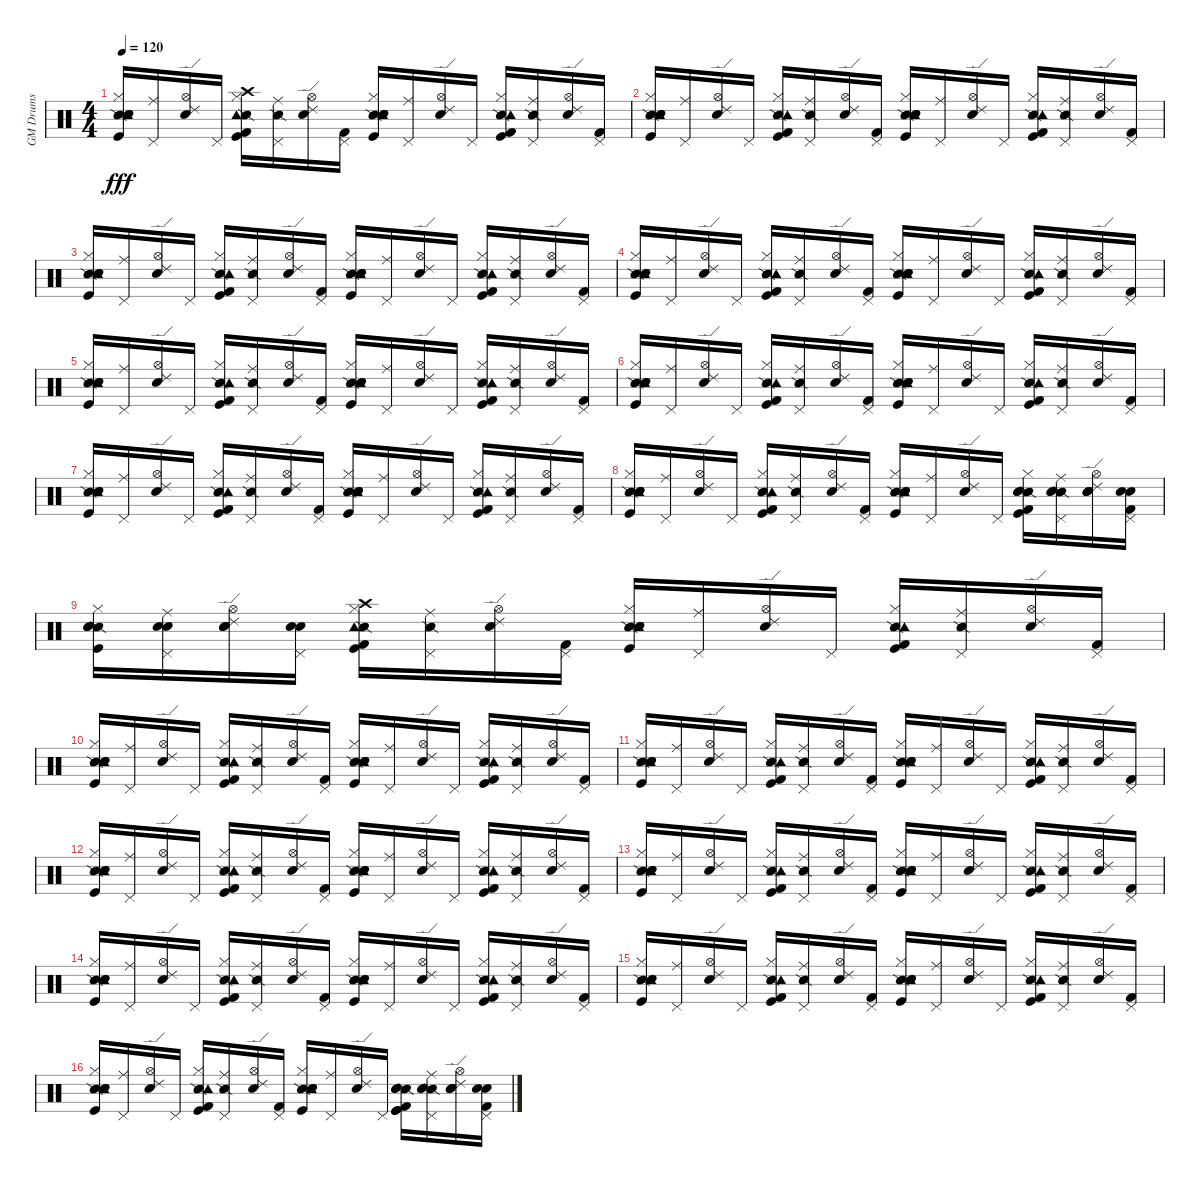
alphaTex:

\track ("GM Drums" "GM Drums") {instrument percussion}
\staff {score}
\articulation defaults
\ts (4 4)
\tempo 120
\clef neutral
\ks c
("Snare (side stick) 2" "Kick (hit)" "Snare (hit) 2" "Hand Clap (hit)" "Hi-Hat (closed)" "Tambourine (hit)").16{dy fff} ("Pedal Hi-Hat (hit)" "Ride (middle)").16 ("Metronome (bell)" "Hi-Hat (open)" "Ride (edge) 2").16 "Pedal Hi-Hat (hit)".16 ("Snare (side stick) 2" "Kick (hit)" "Kick (hit) 2" "Hi-Hat (closed)" "Crash high (hit)" "Tambourine (hit)").16 ("Snare (side stick) 2" "Pedal Hi-Hat (hit)" "Ride (middle)").16 ("Metronome (bell)" "Hi-Hat (open)" "Ride (edge) 2").16 ("Kick (hit) 2" "Pedal Hi-Hat (hit)").16 ("Snare (side stick) 2" "Kick (hit)" "Snare (hit) 2" "Hand Clap (hit)" "Hi-Hat (closed)" "Tambourine (hit)").16 ("Pedal Hi-Hat (hit)" "Ride (middle)").16 ("Metronome (bell)" "Hi-Hat (open)" "Ride (edge) 2").16 "Pedal Hi-Hat (hit)".16 ("Snare (side stick) 2" "Kick (hit)" "Kick (hit) 2" "Hi-Hat (closed)" "Tambourine (hit)").16 ("Snare (side stick) 2" "Pedal Hi-Hat (hit)" "Ride (middle)").16 ("Metronome (bell)" "Hi-Hat (open)" "Ride (edge) 2").16 ("Kick (hit) 2" "Pedal Hi-Hat (hit)").16 |
("Snare (side stick) 2" "Kick (hit)" "Snare (hit) 2" "Hand Clap (hit)" "Hi-Hat (closed)" "Tambourine (hit)").16 ("Pedal Hi-Hat (hit)" "Ride (middle)").16 ("Metronome (bell)" "Hi-Hat (open)" "Ride (edge) 2").16 "Pedal Hi-Hat (hit)".16 ("Snare (side stick) 2" "Kick (hit)" "Kick (hit) 2" "Hi-Hat (closed)" "Tambourine (hit)").16 ("Snare (side stick) 2" "Pedal Hi-Hat (hit)" "Ride (middle)").16 ("Metronome (bell)" "Hi-Hat (open)" "Ride (edge) 2").16 ("Kick (hit) 2" "Pedal Hi-Hat (hit)").16 ("Snare (side stick) 2" "Kick (hit)" "Snare (hit) 2" "Hand Clap (hit)" "Hi-Hat (closed)" "Tambourine (hit)").16 ("Pedal Hi-Hat (hit)" "Ride (middle)").16 ("Metronome (bell)" "Hi-Hat (open)" "Ride (edge) 2").16 "Pedal Hi-Hat (hit)".16 ("Snare (side stick) 2" "Kick (hit)" "Kick (hit) 2" "Hi-Hat (closed)" "Tambourine (hit)").16 ("Snare (side stick) 2" "Pedal Hi-Hat (hit)" "Ride (middle)").16 ("Metronome (bell)" "Hi-Hat (open)" "Ride (edge) 2").16 ("Kick (hit) 2" "Pedal Hi-Hat (hit)").16 |
("Snare (side stick) 2" "Kick (hit)" "Snare (hit) 2" "Hand Clap (hit)" "Hi-Hat (closed)" "Tambourine (hit)").16 ("Pedal Hi-Hat (hit)" "Ride (middle)").16 ("Metronome (bell)" "Hi-Hat (open)" "Ride (edge) 2").16 "Pedal Hi-Hat (hit)".16 ("Snare (side stick) 2" "Kick (hit)" "Kick (hit) 2" "Hi-Hat (closed)" "Tambourine (hit)").16 ("Snare (side stick) 2" "Pedal Hi-Hat (hit)" "Ride (middle)").16 ("Metronome (bell)" "Hi-Hat (open)" "Ride (edge) 2").16 ("Kick (hit) 2" "Pedal Hi-Hat (hit)").16 ("Snare (side stick) 2" "Kick (hit)" "Snare (hit) 2" "Hand Clap (hit)" "Hi-Hat (closed)" "Tambourine (hit)").16 ("Pedal Hi-Hat (hit)" "Ride (middle)").16 ("Metronome (bell)" "Hi-Hat (open)" "Ride (edge) 2").16 "Pedal Hi-Hat (hit)".16 ("Snare (side stick) 2" "Kick (hit)" "Kick (hit) 2" "Hi-Hat (closed)" "Tambourine (hit)").16 ("Snare (side stick) 2" "Pedal Hi-Hat (hit)" "Ride (middle)").16 ("Metronome (bell)" "Hi-Hat (open)" "Ride (edge) 2").16 ("Kick (hit) 2" "Pedal Hi-Hat (hit)").16 |
("Snare (side stick) 2" "Kick (hit)" "Snare (hit) 2" "Hand Clap (hit)" "Hi-Hat (closed)" "Tambourine (hit)").16 ("Pedal Hi-Hat (hit)" "Ride (middle)").16 ("Metronome (bell)" "Hi-Hat (open)" "Ride (edge) 2").16 "Pedal Hi-Hat (hit)".16 ("Snare (side stick) 2" "Kick (hit)" "Kick (hit) 2" "Hi-Hat (closed)" "Tambourine (hit)").16 ("Snare (side stick) 2" "Pedal Hi-Hat (hit)" "Ride (middle)").16 ("Metronome (bell)" "Hi-Hat (open)" "Ride (edge) 2").16 ("Kick (hit) 2" "Pedal Hi-Hat (hit)").16 ("Snare (side stick) 2" "Kick (hit)" "Snare (hit) 2" "Hand Clap (hit)" "Hi-Hat (closed)" "Tambourine (hit)").16 ("Pedal Hi-Hat (hit)" "Ride (middle)").16 ("Metronome (bell)" "Hi-Hat (open)" "Ride (edge) 2").16 "Pedal Hi-Hat (hit)".16 ("Snare (side stick) 2" "Kick (hit)" "Kick (hit) 2" "Hi-Hat (closed)" "Tambourine (hit)").16 ("Snare (side stick) 2" "Pedal Hi-Hat (hit)" "Ride (middle)").16 ("Metronome (bell)" "Hi-Hat (open)" "Ride (edge) 2").16 ("Kick (hit) 2" "Pedal Hi-Hat (hit)").16 |
("Snare (side stick) 2" "Kick (hit)" "Snare (hit) 2" "Hand Clap (hit)" "Hi-Hat (closed)" "Tambourine (hit)").16 ("Pedal Hi-Hat (hit)" "Ride (middle)").16 ("Metronome (bell)" "Hi-Hat (open)" "Ride (edge) 2").16 "Pedal Hi-Hat (hit)".16 ("Snare (side stick) 2" "Kick (hit)" "Kick (hit) 2" "Hi-Hat (closed)" "Tambourine (hit)").16 ("Snare (side stick) 2" "Pedal Hi-Hat (hit)" "Ride (middle)").16 ("Metronome (bell)" "Hi-Hat (open)" "Ride (edge) 2").16 ("Kick (hit) 2" "Pedal Hi-Hat (hit)").16 ("Snare (side stick) 2" "Kick (hit)" "Snare (hit) 2" "Hand Clap (hit)" "Hi-Hat (closed)" "Tambourine (hit)").16 ("Pedal Hi-Hat (hit)" "Ride (middle)").16 ("Metronome (bell)" "Hi-Hat (open)" "Ride (edge) 2").16 "Pedal Hi-Hat (hit)".16 ("Snare (side stick) 2" "Kick (hit)" "Kick (hit) 2" "Hi-Hat (closed)" "Tambourine (hit)").16 ("Snare (side stick) 2" "Pedal Hi-Hat (hit)" "Ride (middle)").16 ("Metronome (bell)" "Hi-Hat (open)" "Ride (edge) 2").16 ("Kick (hit) 2" "Pedal Hi-Hat (hit)").16 |
("Snare (side stick) 2" "Kick (hit)" "Snare (hit) 2" "Hand Clap (hit)" "Hi-Hat (closed)" "Tambourine (hit)").16 ("Pedal Hi-Hat (hit)" "Ride (middle)").16 ("Metronome (bell)" "Hi-Hat (open)" "Ride (edge) 2").16 "Pedal Hi-Hat (hit)".16 ("Snare (side stick) 2" "Kick (hit)" "Kick (hit) 2" "Hi-Hat (closed)" "Tambourine (hit)").16 ("Snare (side stick) 2" "Pedal Hi-Hat (hit)" "Ride (middle)").16 ("Metronome (bell)" "Hi-Hat (open)" "Ride (edge) 2").16 ("Kick (hit) 2" "Pedal Hi-Hat (hit)").16 ("Snare (side stick) 2" "Kick (hit)" "Snare (hit) 2" "Hand Clap (hit)" "Hi-Hat (closed)" "Tambourine (hit)").16 ("Pedal Hi-Hat (hit)" "Ride (middle)").16 ("Metronome (bell)" "Hi-Hat (open)" "Ride (edge) 2").16 "Pedal Hi-Hat (hit)".16 ("Snare (side stick) 2" "Kick (hit)" "Kick (hit) 2" "Hi-Hat (closed)" "Tambourine (hit)").16 ("Snare (side stick) 2" "Pedal Hi-Hat (hit)" "Ride (middle)").16 ("Metronome (bell)" "Hi-Hat (open)" "Ride (edge) 2").16 ("Kick (hit) 2" "Pedal Hi-Hat (hit)").16 |
("Snare (side stick) 2" "Kick (hit)" "Snare (hit) 2" "Hand Clap (hit)" "Hi-Hat (closed)" "Tambourine (hit)").16 ("Pedal Hi-Hat (hit)" "Ride (middle)").16 ("Metronome (bell)" "Hi-Hat (open)" "Ride (edge) 2").16 "Pedal Hi-Hat (hit)".16 ("Snare (side stick) 2" "Kick (hit)" "Kick (hit) 2" "Hi-Hat (closed)" "Tambourine (hit)").16 ("Snare (side stick) 2" "Pedal Hi-Hat (hit)" "Ride (middle)").16 ("Metronome (bell)" "Hi-Hat (open)" "Ride (edge) 2").16 ("Kick (hit) 2" "Pedal Hi-Hat (hit)").16 ("Snare (side stick) 2" "Kick (hit)" "Snare (hit) 2" "Hand Clap (hit)" "Hi-Hat (closed)" "Tambourine (hit)").16 ("Pedal Hi-Hat (hit)" "Ride (middle)").16 ("Metronome (bell)" "Hi-Hat (open)" "Ride (edge) 2").16 "Pedal Hi-Hat (hit)".16 ("Snare (side stick) 2" "Kick (hit)" "Kick (hit) 2" "Hi-Hat (closed)" "Tambourine (hit)").16 ("Snare (side stick) 2" "Pedal Hi-Hat (hit)" "Ride (middle)").16 ("Metronome (bell)" "Hi-Hat (open)" "Ride (edge) 2").16 ("Kick (hit) 2" "Pedal Hi-Hat (hit)").16 |
("Snare (side stick) 2" "Kick (hit)" "Snare (hit) 2" "Hand Clap (hit)" "Hi-Hat (closed)" "Tambourine (hit)").16 ("Pedal Hi-Hat (hit)" "Ride (middle)").16 ("Metronome (bell)" "Hi-Hat (open)" "Ride (edge) 2").16 "Pedal Hi-Hat (hit)".16 ("Snare (side stick) 2" "Kick (hit)" "Kick (hit) 2" "Hi-Hat (closed)" "Tambourine (hit)").16 ("Snare (side stick) 2" "Pedal Hi-Hat (hit)" "Ride (middle)").16 ("Metronome (bell)" "Hi-Hat (open)" "Ride (edge) 2").16 ("Kick (hit) 2" "Pedal Hi-Hat (hit)").16 ("Snare (side stick) 2" "Kick (hit)" "Snare (hit) 2" "Hand Clap (hit)" "Hi-Hat (closed)" "Tambourine (hit)").16 ("Pedal Hi-Hat (hit)" "Ride (middle)").16 ("Metronome (bell)" "Hi-Hat (open)" "Ride (edge) 2").16 "Pedal Hi-Hat (hit)".16 ("Snare (side stick) 2" "Kick (hit)" "Kick (hit) 2" "Snare (hit) 2" "Electric Snare (hit)" "Hi-Hat (closed)").16 ("Snare (side stick) 2" "Snare (hit) 2" "Electric Snare (hit)" "Pedal Hi-Hat (hit)" "Ride (middle)").16 ("Metronome (bell)" "Snare (hit) 2" "Electric Snare (hit)" "Hi-Hat (open)" "Ride (edge) 2").16 ("Kick (hit) 2" "Snare (hit) 2" "Electric Snare (hit)" "Pedal Hi-Hat (hit)").16 |
("Snare (side stick) 2" "Kick (hit)" "Snare (hit) 2" "Hand Clap (hit)" "Electric Snare (hit)" "Hi-Hat (closed)").16 ("Snare (hit) 2" "Electric Snare (hit)" "Pedal Hi-Hat (hit)" "Ride (middle)").16 ("Metronome (bell)" "Snare (hit) 2" "Electric Snare (hit)" "Hi-Hat (open)" "Ride (edge) 2").16 ("Snare (hit) 2" "Electric Snare (hit)" "Pedal Hi-Hat (hit)").16 ("Snare (side stick) 2" "Kick (hit)" "Kick (hit) 2" "Hi-Hat (closed)" "Crash high (hit)" "Tambourine (hit)").16 ("Snare (side stick) 2" "Pedal Hi-Hat (hit)" "Ride (middle)").16 ("Metronome (bell)" "Hi-Hat (open)" "Ride (edge) 2").16 ("Kick (hit) 2" "Pedal Hi-Hat (hit)").16 ("Snare (side stick) 2" "Kick (hit)" "Snare (hit) 2" "Hand Clap (hit)" "Hi-Hat (closed)" "Tambourine (hit)").16 ("Pedal Hi-Hat (hit)" "Ride (middle)").16 ("Metronome (bell)" "Hi-Hat (open)" "Ride (edge) 2").16 "Pedal Hi-Hat (hit)".16 ("Snare (side stick) 2" "Kick (hit)" "Kick (hit) 2" "Hi-Hat (closed)" "Tambourine (hit)").16 ("Snare (side stick) 2" "Pedal Hi-Hat (hit)" "Ride (middle)").16 ("Metronome (bell)" "Hi-Hat (open)" "Ride (edge) 2").16 ("Kick (hit) 2" "Pedal Hi-Hat (hit)").16 |
("Snare (side stick) 2" "Kick (hit)" "Snare (hit) 2" "Hand Clap (hit)" "Hi-Hat (closed)" "Tambourine (hit)").16 ("Pedal Hi-Hat (hit)" "Ride (middle)").16 ("Metronome (bell)" "Hi-Hat (open)" "Ride (edge) 2").16 "Pedal Hi-Hat (hit)".16 ("Snare (side stick) 2" "Kick (hit)" "Kick (hit) 2" "Hi-Hat (closed)" "Tambourine (hit)").16 ("Snare (side stick) 2" "Pedal Hi-Hat (hit)" "Ride (middle)").16 ("Metronome (bell)" "Hi-Hat (open)" "Ride (edge) 2").16 ("Kick (hit) 2" "Pedal Hi-Hat (hit)").16 ("Snare (side stick) 2" "Kick (hit)" "Snare (hit) 2" "Hand Clap (hit)" "Hi-Hat (closed)" "Tambourine (hit)").16 ("Pedal Hi-Hat (hit)" "Ride (middle)").16 ("Metronome (bell)" "Hi-Hat (open)" "Ride (edge) 2").16 "Pedal Hi-Hat (hit)".16 ("Snare (side stick) 2" "Kick (hit)" "Kick (hit) 2" "Hi-Hat (closed)" "Tambourine (hit)").16 ("Snare (side stick) 2" "Pedal Hi-Hat (hit)" "Ride (middle)").16 ("Metronome (bell)" "Hi-Hat (open)" "Ride (edge) 2").16 ("Kick (hit) 2" "Pedal Hi-Hat (hit)").16 |
("Snare (side stick) 2" "Kick (hit)" "Snare (hit) 2" "Hand Clap (hit)" "Hi-Hat (closed)" "Tambourine (hit)").16 ("Pedal Hi-Hat (hit)" "Ride (middle)").16 ("Metronome (bell)" "Hi-Hat (open)" "Ride (edge) 2").16 "Pedal Hi-Hat (hit)".16 ("Snare (side stick) 2" "Kick (hit)" "Kick (hit) 2" "Hi-Hat (closed)" "Tambourine (hit)").16 ("Snare (side stick) 2" "Pedal Hi-Hat (hit)" "Ride (middle)").16 ("Metronome (bell)" "Hi-Hat (open)" "Ride (edge) 2").16 ("Kick (hit) 2" "Pedal Hi-Hat (hit)").16 ("Snare (side stick) 2" "Kick (hit)" "Snare (hit) 2" "Hand Clap (hit)" "Hi-Hat (closed)" "Tambourine (hit)").16 ("Pedal Hi-Hat (hit)" "Ride (middle)").16 ("Metronome (bell)" "Hi-Hat (open)" "Ride (edge) 2").16 "Pedal Hi-Hat (hit)".16 ("Snare (side stick) 2" "Kick (hit)" "Kick (hit) 2" "Hi-Hat (closed)" "Tambourine (hit)").16 ("Snare (side stick) 2" "Pedal Hi-Hat (hit)" "Ride (middle)").16 ("Metronome (bell)" "Hi-Hat (open)" "Ride (edge) 2").16 ("Kick (hit) 2" "Pedal Hi-Hat (hit)").16 |
("Snare (side stick) 2" "Kick (hit)" "Snare (hit) 2" "Hand Clap (hit)" "Hi-Hat (closed)" "Tambourine (hit)").16 ("Pedal Hi-Hat (hit)" "Ride (middle)").16 ("Metronome (bell)" "Hi-Hat (open)" "Ride (edge) 2").16 "Pedal Hi-Hat (hit)".16 ("Snare (side stick) 2" "Kick (hit)" "Kick (hit) 2" "Hi-Hat (closed)" "Tambourine (hit)").16 ("Snare (side stick) 2" "Pedal Hi-Hat (hit)" "Ride (middle)").16 ("Metronome (bell)" "Hi-Hat (open)" "Ride (edge) 2").16 ("Kick (hit) 2" "Pedal Hi-Hat (hit)").16 ("Snare (side stick) 2" "Kick (hit)" "Snare (hit) 2" "Hand Clap (hit)" "Hi-Hat (closed)" "Tambourine (hit)").16 ("Pedal Hi-Hat (hit)" "Ride (middle)").16 ("Metronome (bell)" "Hi-Hat (open)" "Ride (edge) 2").16 "Pedal Hi-Hat (hit)".16 ("Snare (side stick) 2" "Kick (hit)" "Kick (hit) 2" "Hi-Hat (closed)" "Tambourine (hit)").16 ("Snare (side stick) 2" "Pedal Hi-Hat (hit)" "Ride (middle)").16 ("Metronome (bell)" "Hi-Hat (open)" "Ride (edge) 2").16 ("Kick (hit) 2" "Pedal Hi-Hat (hit)").16 |
("Snare (side stick) 2" "Kick (hit)" "Snare (hit) 2" "Hand Clap (hit)" "Hi-Hat (closed)" "Tambourine (hit)").16 ("Pedal Hi-Hat (hit)" "Ride (middle)").16 ("Metronome (bell)" "Hi-Hat (open)" "Ride (edge) 2").16 "Pedal Hi-Hat (hit)".16 ("Snare (side stick) 2" "Kick (hit)" "Kick (hit) 2" "Hi-Hat (closed)" "Tambourine (hit)").16 ("Snare (side stick) 2" "Pedal Hi-Hat (hit)" "Ride (middle)").16 ("Metronome (bell)" "Hi-Hat (open)" "Ride (edge) 2").16 ("Kick (hit) 2" "Pedal Hi-Hat (hit)").16 ("Snare (side stick) 2" "Kick (hit)" "Snare (hit) 2" "Hand Clap (hit)" "Hi-Hat (closed)" "Tambourine (hit)").16 ("Pedal Hi-Hat (hit)" "Ride (middle)").16 ("Metronome (bell)" "Hi-Hat (open)" "Ride (edge) 2").16 "Pedal Hi-Hat (hit)".16 ("Snare (side stick) 2" "Kick (hit)" "Kick (hit) 2" "Hi-Hat (closed)" "Tambourine (hit)").16 ("Snare (side stick) 2" "Pedal Hi-Hat (hit)" "Ride (middle)").16 ("Metronome (bell)" "Hi-Hat (open)" "Ride (edge) 2").16 ("Kick (hit) 2" "Pedal Hi-Hat (hit)").16 |
("Snare (side stick) 2" "Kick (hit)" "Snare (hit) 2" "Hand Clap (hit)" "Hi-Hat (closed)" "Tambourine (hit)").16 ("Pedal Hi-Hat (hit)" "Ride (middle)").16 ("Metronome (bell)" "Hi-Hat (open)" "Ride (edge) 2").16 "Pedal Hi-Hat (hit)".16 ("Snare (side stick) 2" "Kick (hit)" "Kick (hit) 2" "Hi-Hat (closed)" "Tambourine (hit)").16 ("Snare (side stick) 2" "Pedal Hi-Hat (hit)" "Ride (middle)").16 ("Metronome (bell)" "Hi-Hat (open)" "Ride (edge) 2").16 ("Kick (hit) 2" "Pedal Hi-Hat (hit)").16 ("Snare (side stick) 2" "Kick (hit)" "Snare (hit) 2" "Hand Clap (hit)" "Hi-Hat (closed)" "Tambourine (hit)").16 ("Pedal Hi-Hat (hit)" "Ride (middle)").16 ("Metronome (bell)" "Hi-Hat (open)" "Ride (edge) 2").16 "Pedal Hi-Hat (hit)".16 ("Snare (side stick) 2" "Kick (hit)" "Kick (hit) 2" "Hi-Hat (closed)" "Tambourine (hit)").16 ("Snare (side stick) 2" "Pedal Hi-Hat (hit)" "Ride (middle)").16 ("Metronome (bell)" "Hi-Hat (open)" "Ride (edge) 2").16 ("Kick (hit) 2" "Pedal Hi-Hat (hit)").16 |
("Snare (side stick) 2" "Kick (hit)" "Snare (hit) 2" "Hand Clap (hit)" "Hi-Hat (closed)" "Tambourine (hit)").16 ("Pedal Hi-Hat (hit)" "Ride (middle)").16 ("Metronome (bell)" "Hi-Hat (open)" "Ride (edge) 2").16 "Pedal Hi-Hat (hit)".16 ("Snare (side stick) 2" "Kick (hit)" "Kick (hit) 2" "Hi-Hat (closed)" "Tambourine (hit)").16 ("Snare (side stick) 2" "Pedal Hi-Hat (hit)" "Ride (middle)").16 ("Metronome (bell)" "Hi-Hat (open)" "Ride (edge) 2").16 ("Kick (hit) 2" "Pedal Hi-Hat (hit)").16 ("Snare (side stick) 2" "Kick (hit)" "Snare (hit) 2" "Hand Clap (hit)" "Hi-Hat (closed)" "Tambourine (hit)").16 ("Pedal Hi-Hat (hit)" "Ride (middle)").16 ("Metronome (bell)" "Hi-Hat (open)" "Ride (edge) 2").16 "Pedal Hi-Hat (hit)".16 ("Snare (side stick) 2" "Kick (hit)" "Kick (hit) 2" "Hi-Hat (closed)" "Tambourine (hit)").16 ("Snare (side stick) 2" "Pedal Hi-Hat (hit)" "Ride (middle)").16 ("Metronome (bell)" "Hi-Hat (open)" "Ride (edge) 2").16 ("Kick (hit) 2" "Pedal Hi-Hat (hit)").16 |
("Snare (side stick) 2" "Kick (hit)" "Snare (hit) 2" "Hand Clap (hit)" "Hi-Hat (closed)" "Tambourine (hit)").16 ("Pedal Hi-Hat (hit)" "Ride (middle)").16 ("Metronome (bell)" "Hi-Hat (open)" "Ride (edge) 2").16 "Pedal Hi-Hat (hit)".16 ("Snare (side stick) 2" "Kick (hit)" "Kick (hit) 2" "Hi-Hat (closed)" "Tambourine (hit)").16 ("Snare (side stick) 2" "Pedal Hi-Hat (hit)" "Ride (middle)").16 ("Metronome (bell)" "Hi-Hat (open)" "Ride (edge) 2").16 ("Kick (hit) 2" "Pedal Hi-Hat (hit)").16 ("Snare (side stick) 2" "Kick (hit)" "Snare (hit) 2" "Hand Clap (hit)" "Hi-Hat (closed)" "Tambourine (hit)").16 ("Pedal Hi-Hat (hit)" "Ride (middle)").16 ("Metronome (bell)" "Hi-Hat (open)" "Ride (edge) 2").16 "Pedal Hi-Hat (hit)".16 ("Snare (side stick) 2" "Kick (hit)" "Kick (hit)" "Kick (hit) 2" "Snare (hit) 2" "Electric Snare (hit)").16 ("Snare (side stick) 2" "Snare (hit) 2" "Electric Snare (hit)" "Pedal Hi-Hat (hit)" "Ride (middle)").16 ("Metronome (bell)" "Snare (hit) 2" "Electric Snare (hit)" "Hi-Hat (open)" "Ride (edge) 2").16 ("Kick (hit) 2" "Snare (hit) 2" "Electric Snare (hit)" "Pedal Hi-Hat (hit)").16
